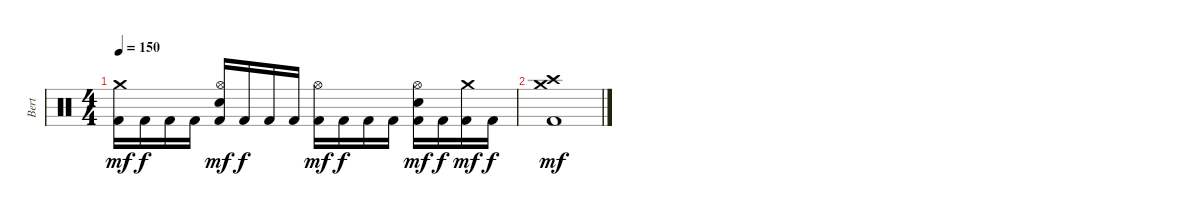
\track ("Bert" "Bert") {instrument percussion}
\staff {score}
\articulation defaults
\ts (4 4)
\tempo 150
\clef neutral
\ks c
("Crash medium (hit)" "Kick (hit) 2").16{dy mf} "Kick (hit) 2".16{dy f} "Kick (hit) 2".16 "Kick (hit) 2".16 ("Hi-Hat (open)" "Snare (hit) 2" "Kick (hit) 2").16{dy mf} "Kick (hit) 2".16{dy f} "Kick (hit) 2".16 "Kick (hit) 2".16 ("Hi-Hat (open)" "Kick (hit) 2").16{dy mf} "Kick (hit) 2".16{dy f} "Kick (hit) 2".16 "Kick (hit) 2".16 ("Hi-Hat (open)" "Snare (hit) 2" "Kick (hit) 2").16{dy mf} "Kick (hit) 2".16{dy f} ("Crash medium (hit)" "Kick (hit) 2").16{dy mf} "Kick (hit) 2".16{dy f} |
("Crash high (hit)" "Crash medium (hit)" "Kick (hit) 2").1{dy mf}
